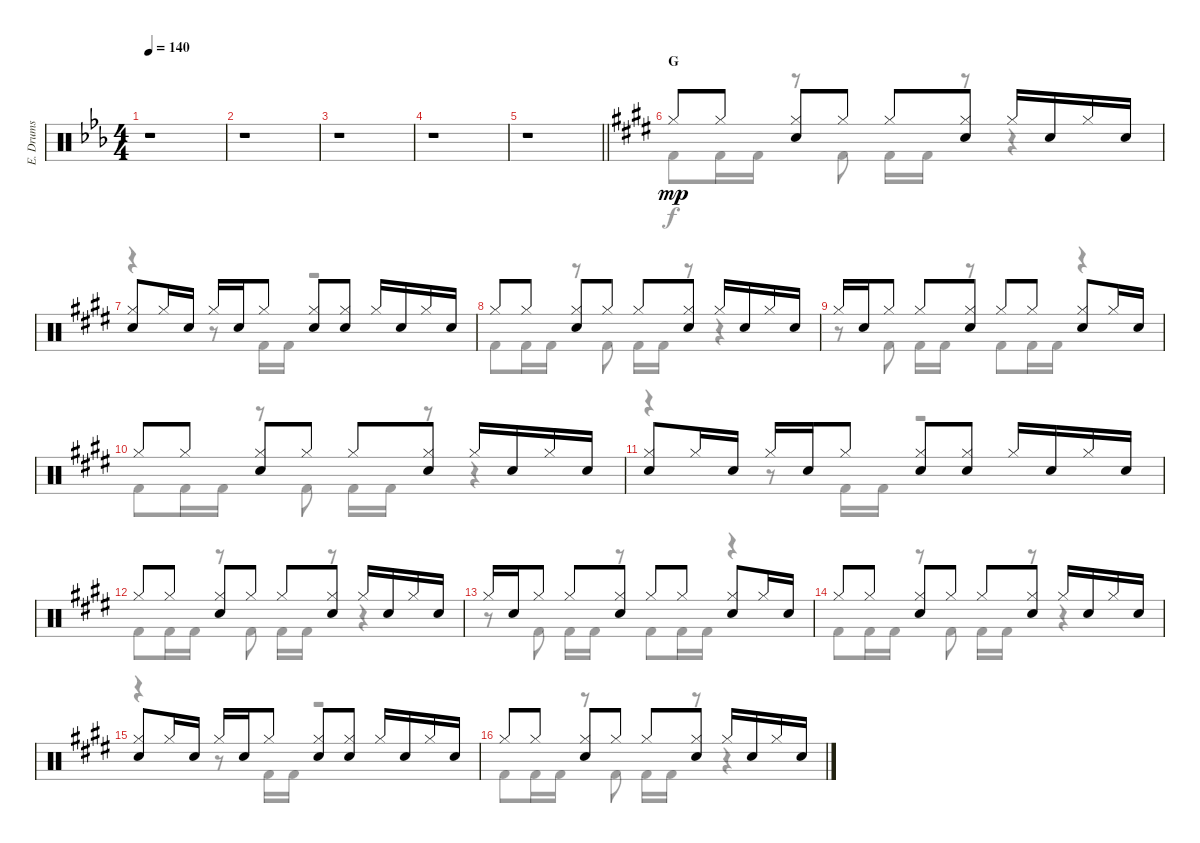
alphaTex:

\track ("E. Drums" "E. Drums") {instrument percussion}
\staff {score}
\articulation defaults
\voice
\ts (4 4)
\tempo 140
\clef neutral
\ks eb
r.1{dy mp} |
r.1 |
r.1 |
r.1 |
\barLineRight lightlight
r.1 |
\section ("" "G")
\ks e "Hi-Hat (closed)".8 "Hi-Hat (closed)".8
("Hi-Hat (closed)" "Electric Snare (hit)").8 "Hi-Hat (closed)".8 "Hi-Hat (closed)".8 ("Hi-Hat (closed)" "Electric Snare (hit)").8 "Hi-Hat (closed)".16 "Electric Snare (hit)".16 "Hi-Hat (closed)".16 "Electric Snare (hit)".16 |
("Hi-Hat (closed)" "Electric Snare (hit)").8 "Hi-Hat (closed)".16 "Electric Snare (hit)".16 "Hi-Hat (closed)".16 "Electric Snare (hit)".16 "Hi-Hat (closed)".8 ("Hi-Hat (closed)" "Electric Snare (hit)").8 ("Hi-Hat (closed)" "Electric Snare (hit)").8 "Hi-Hat (closed)".16 "Electric Snare (hit)".16 "Hi-Hat (closed)".16 "Electric Snare (hit)".16 |
"Hi-Hat (closed)".8 "Hi-Hat (closed)".8 ("Hi-Hat (closed)" "Electric Snare (hit)").8 "Hi-Hat (closed)".8 "Hi-Hat (closed)".8 ("Hi-Hat (closed)" "Electric Snare (hit)").8 "Hi-Hat (closed)".16 "Electric Snare (hit)".16 "Hi-Hat (closed)".16 "Electric Snare (hit)".16 |
"Hi-Hat (closed)".16 "Electric Snare (hit)".16 "Hi-Hat (closed)".8 "Hi-Hat (closed)".8 ("Hi-Hat (closed)" "Electric Snare (hit)").8 "Hi-Hat (closed)".8 "Hi-Hat (closed)".8 ("Hi-Hat (closed)" "Electric Snare (hit)").8 "Hi-Hat (closed)".16 "Electric Snare (hit)".16 |
"Hi-Hat (closed)".8 "Hi-Hat (closed)".8 ("Hi-Hat (closed)" "Electric Snare (hit)").8 "Hi-Hat (closed)".8 "Hi-Hat (closed)".8 ("Hi-Hat (closed)" "Electric Snare (hit)").8 "Hi-Hat (closed)".16 "Electric Snare (hit)".16 "Hi-Hat (closed)".16 "Electric Snare (hit)".16 |
("Hi-Hat (closed)" "Electric Snare (hit)").8 "Hi-Hat (closed)".16 "Electric Snare (hit)".16 "Hi-Hat (closed)".16 "Electric Snare (hit)".16 "Hi-Hat (closed)".8 ("Hi-Hat (closed)" "Electric Snare (hit)").8 ("Hi-Hat (closed)" "Electric Snare (hit)").8 "Hi-Hat (closed)".16 "Electric Snare (hit)".16 "Hi-Hat (closed)".16 "Electric Snare (hit)".16 |
"Hi-Hat (closed)".8 "Hi-Hat (closed)".8 ("Hi-Hat (closed)" "Electric Snare (hit)").8 "Hi-Hat (closed)".8 "Hi-Hat (closed)".8 ("Hi-Hat (closed)" "Electric Snare (hit)").8 "Hi-Hat (closed)".16 "Electric Snare (hit)".16 "Hi-Hat (closed)".16 "Electric Snare (hit)".16 |
"Hi-Hat (closed)".16 "Electric Snare (hit)".16 "Hi-Hat (closed)".8 "Hi-Hat (closed)".8 ("Hi-Hat (closed)" "Electric Snare (hit)").8 "Hi-Hat (closed)".8 "Hi-Hat (closed)".8 ("Hi-Hat (closed)" "Electric Snare (hit)").8 "Hi-Hat (closed)".16 "Electric Snare (hit)".16 |
"Hi-Hat (closed)".8 "Hi-Hat (closed)".8 ("Hi-Hat (closed)" "Electric Snare (hit)").8 "Hi-Hat (closed)".8 "Hi-Hat (closed)".8 ("Hi-Hat (closed)" "Electric Snare (hit)").8 "Hi-Hat (closed)".16 "Electric Snare (hit)".16 "Hi-Hat (closed)".16 "Electric Snare (hit)".16 |
("Hi-Hat (closed)" "Electric Snare (hit)").8 "Hi-Hat (closed)".16 "Electric Snare (hit)".16 "Hi-Hat (closed)".16 "Electric Snare (hit)".16 "Hi-Hat (closed)".8 ("Hi-Hat (closed)" "Electric Snare (hit)").8 ("Hi-Hat (closed)" "Electric Snare (hit)").8 "Hi-Hat (closed)".16 "Electric Snare (hit)".16 "Hi-Hat (closed)".16 "Electric Snare (hit)".16 |
"Hi-Hat (closed)".8 "Hi-Hat (closed)".8 ("Hi-Hat (closed)" "Electric Snare (hit)").8 "Hi-Hat (closed)".8 "Hi-Hat (closed)".8 ("Hi-Hat (closed)" "Electric Snare (hit)").8 "Hi-Hat (closed)".16 "Electric Snare (hit)".16 "Hi-Hat (closed)".16 "Electric Snare (hit)".16
\voice
\clef neutral
\ottava regular
\simile none
\ks eb
r.1{dy f} |
r.1 |
r.1 |
r.1 |
\barLineRight lightlight
r.1 |
\ks e "Kick (hit) 2".8 "Kick (hit) 2".16 "Kick (hit) 2".16
r.8 "Kick (hit) 2".8 "Kick (hit) 2".16 "Kick (hit) 2".16 r.8 r.4 |
r.4 r.8 "Kick (hit) 2".16 "Kick (hit) 2".16 r.2 |
"Kick (hit) 2".8 "Kick (hit) 2".16 "Kick (hit) 2".16 r.8 "Kick (hit) 2".8 "Kick (hit) 2".16 "Kick (hit) 2".16 r.8 r.4 |
r.8 "Kick (hit) 2".8 "Kick (hit) 2".16 "Kick (hit) 2".16 r.8 "Kick (hit) 2".8 "Kick (hit) 2".16 "Kick (hit) 2".16 r.4 |
"Kick (hit) 2".8 "Kick (hit) 2".16 "Kick (hit) 2".16 r.8 "Kick (hit) 2".8 "Kick (hit) 2".16 "Kick (hit) 2".16 r.8 r.4 |
r.4 r.8 "Kick (hit) 2".16 "Kick (hit) 2".16 r.2 |
"Kick (hit) 2".8 "Kick (hit) 2".16 "Kick (hit) 2".16 r.8 "Kick (hit) 2".8 "Kick (hit) 2".16 "Kick (hit) 2".16 r.8 r.4 |
r.8 "Kick (hit) 2".8 "Kick (hit) 2".16 "Kick (hit) 2".16 r.8 "Kick (hit) 2".8 "Kick (hit) 2".16 "Kick (hit) 2".16 r.4 |
"Kick (hit) 2".8 "Kick (hit) 2".16 "Kick (hit) 2".16 r.8 "Kick (hit) 2".8 "Kick (hit) 2".16 "Kick (hit) 2".16 r.8 r.4 |
r.4 r.8 "Kick (hit) 2".16 "Kick (hit) 2".16 r.2 |
"Kick (hit) 2".8 "Kick (hit) 2".16 "Kick (hit) 2".16 r.8 "Kick (hit) 2".8 "Kick (hit) 2".16 "Kick (hit) 2".16 r.8 r.4
